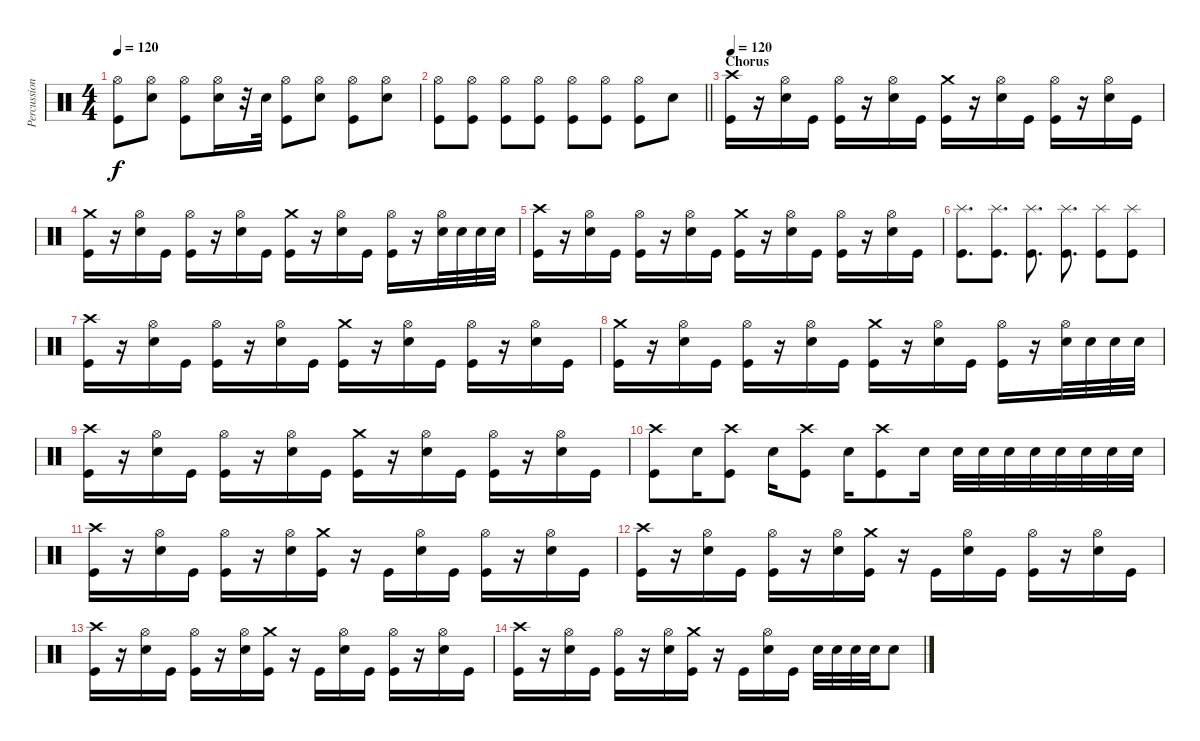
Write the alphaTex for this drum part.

\track ("Percussion" "Percussion") {instrument percussion}
\staff {score}
\articulation defaults
\ts (4 4)
\tempo 120
\clef neutral
\ks c
("Hi-Hat (open)" "Kick (hit)").8{dy f} ("Hi-Hat (open)" "Electric Snare (hit)").8 ("Hi-Hat (open)" "Kick (hit)").8 ("Hi-Hat (open)" "Electric Snare (hit)").16 r.32 "Electric Snare (hit)".32 ("Hi-Hat (open)" "Kick (hit)").8 ("Hi-Hat (open)" "Electric Snare (hit)").8 ("Hi-Hat (open)" "Kick (hit)").8 ("Hi-Hat (open)" "Electric Snare (hit)").8 |
\barLineRight lightlight
("Hi-Hat (open)" "Kick (hit)").8 ("Hi-Hat (open)" "Kick (hit)").8 ("Hi-Hat (open)" "Kick (hit)").8 ("Hi-Hat (open)" "Kick (hit)").8 ("Hi-Hat (open)" "Kick (hit)").8 ("Hi-Hat (open)" "Kick (hit)").8 ("Hi-Hat (open)" "Kick (hit)").8 "Electric Snare (hit)".8 |
\section ("" "Chorus")
\tempo 120
("Crash high (hit)" "Kick (hit)").16 r.16 ("Hi-Hat (open)" "Electric Snare (hit)").16 "Kick (hit)".16 ("Hi-Hat (open)" "Kick (hit)").16 r.16 ("Hi-Hat (open)" "Electric Snare (hit)").16 "Kick (hit)".16 ("Crash medium (hit)" "Kick (hit)").16 r.16 ("Hi-Hat (open)" "Electric Snare (hit)").16 "Kick (hit)".16 ("Hi-Hat (open)" "Kick (hit)").16 r.16 ("Hi-Hat (open)" "Electric Snare (hit)").16 "Kick (hit)".16 |
("Crash medium (hit)" "Kick (hit)").16 r.16 ("Hi-Hat (open)" "Electric Snare (hit)").16 "Kick (hit)".16 ("Hi-Hat (open)" "Kick (hit)").16 r.16 ("Hi-Hat (open)" "Electric Snare (hit)").16 "Kick (hit)".16 ("Crash medium (hit)" "Kick (hit)").16 r.16 ("Hi-Hat (open)" "Electric Snare (hit)").16 "Kick (hit)".16 ("Hi-Hat (open)" "Kick (hit)").16 r.16 ("Hi-Hat (open)" "Electric Snare (hit)").32 "Electric Snare (hit)".32 "Electric Snare (hit)".32 "Electric Snare (hit)".32 |
("Crash high (hit)" "Kick (hit)").16 r.16 ("Hi-Hat (open)" "Electric Snare (hit)").16 "Kick (hit)".16 ("Hi-Hat (open)" "Kick (hit)").16 r.16 ("Hi-Hat (open)" "Electric Snare (hit)").16 "Kick (hit)".16 ("Crash medium (hit)" "Kick (hit)").16 r.16 ("Hi-Hat (open)" "Electric Snare (hit)").16 "Kick (hit)".16 ("Hi-Hat (open)" "Kick (hit)").16 r.16 ("Hi-Hat (open)" "Electric Snare (hit)").16 "Kick (hit)".16 |
("Splash (hit)" "Kick (hit)").8{d} ("Splash (hit)" "Kick (hit)").8{d} ("Splash (hit)" "Kick (hit)").8{d} ("Splash (hit)" "Kick (hit)").8{d} ("Splash (hit)" "Kick (hit)").8 ("Splash (hit)" "Kick (hit)").8 |
("Crash high (hit)" "Kick (hit)").16 r.16 ("Hi-Hat (open)" "Electric Snare (hit)").16 "Kick (hit)".16 ("Hi-Hat (open)" "Kick (hit)").16 r.16 ("Hi-Hat (open)" "Electric Snare (hit)").16 "Kick (hit)".16 ("Crash medium (hit)" "Kick (hit)").16 r.16 ("Hi-Hat (open)" "Electric Snare (hit)").16 "Kick (hit)".16 ("Hi-Hat (open)" "Kick (hit)").16 r.16 ("Hi-Hat (open)" "Electric Snare (hit)").16 "Kick (hit)".16 |
("Crash medium (hit)" "Kick (hit)").16 r.16 ("Hi-Hat (open)" "Electric Snare (hit)").16 "Kick (hit)".16 ("Hi-Hat (open)" "Kick (hit)").16 r.16 ("Hi-Hat (open)" "Electric Snare (hit)").16 "Kick (hit)".16 ("Crash medium (hit)" "Kick (hit)").16 r.16 ("Hi-Hat (open)" "Electric Snare (hit)").16 "Kick (hit)".16 ("Hi-Hat (open)" "Kick (hit)").16 r.16 ("Hi-Hat (open)" "Electric Snare (hit)").32 "Electric Snare (hit)".32 "Electric Snare (hit)".32 "Electric Snare (hit)".32 |
("Crash high (hit)" "Kick (hit)").16 r.16 ("Hi-Hat (open)" "Electric Snare (hit)").16 "Kick (hit)".16 ("Hi-Hat (open)" "Kick (hit)").16 r.16 ("Hi-Hat (open)" "Electric Snare (hit)").16 "Kick (hit)".16 ("Crash medium (hit)" "Kick (hit)").16 r.16 ("Hi-Hat (open)" "Electric Snare (hit)").16 "Kick (hit)".16 ("Hi-Hat (open)" "Kick (hit)").16 r.16 ("Hi-Hat (open)" "Electric Snare (hit)").16 "Kick (hit)".16 |
("Crash high (hit)" "Kick (hit)").8 "Electric Snare (hit)".16 ("Crash high (hit)" "Kick (hit)").8 "Electric Snare (hit)".16 ("Crash high (hit)" "Kick (hit)").8 "Electric Snare (hit)".16 ("Crash high (hit)" "Kick (hit)").8 "Electric Snare (hit)".16 "Electric Snare (hit)".32 "Electric Snare (hit)".32 "Electric Snare (hit)".32 "Electric Snare (hit)".32 "Electric Snare (hit)".32 "Electric Snare (hit)".32 "Electric Snare (hit)".32 "Electric Snare (hit)".32 |
("Crash high (hit)" "Kick (hit)").16 r.16 ("Hi-Hat (open)" "Electric Snare (hit)").16 "Kick (hit)".16 ("Hi-Hat (open)" "Kick (hit)").16 r.16 ("Hi-Hat (open)" "Electric Snare (hit)").16 ("Crash medium (hit)" "Kick (hit)").16 r.16 "Kick (hit)".16 ("Hi-Hat (open)" "Electric Snare (hit)").16 "Kick (hit)".16 ("Hi-Hat (open)" "Kick (hit)").16 r.16 ("Hi-Hat (open)" "Electric Snare (hit)").16 "Kick (hit)".16 |
("Crash high (hit)" "Kick (hit)").16 r.16 ("Hi-Hat (open)" "Electric Snare (hit)").16 "Kick (hit)".16 ("Hi-Hat (open)" "Kick (hit)").16 r.16 ("Hi-Hat (open)" "Electric Snare (hit)").16 ("Crash medium (hit)" "Kick (hit)").16 r.16 "Kick (hit)".16 ("Hi-Hat (open)" "Electric Snare (hit)").16 "Kick (hit)".16 ("Hi-Hat (open)" "Kick (hit)").16 r.16 ("Hi-Hat (open)" "Electric Snare (hit)").16 "Kick (hit)".16 |
("Crash high (hit)" "Kick (hit)").16 r.16 ("Hi-Hat (open)" "Electric Snare (hit)").16 "Kick (hit)".16 ("Hi-Hat (open)" "Kick (hit)").16 r.16 ("Hi-Hat (open)" "Electric Snare (hit)").16 ("Crash medium (hit)" "Kick (hit)").16 r.16 "Kick (hit)".16 ("Hi-Hat (open)" "Electric Snare (hit)").16 "Kick (hit)".16 ("Hi-Hat (open)" "Kick (hit)").16 r.16 ("Hi-Hat (open)" "Electric Snare (hit)").16 "Kick (hit)".16 |
("Crash high (hit)" "Kick (hit)").16 r.16 ("Hi-Hat (open)" "Electric Snare (hit)").16 "Kick (hit)".16 ("Hi-Hat (open)" "Kick (hit)").16 r.16 ("Hi-Hat (open)" "Electric Snare (hit)").16 ("Crash medium (hit)" "Kick (hit)").16 r.16 "Kick (hit)".16 ("Hi-Hat (open)" "Electric Snare (hit)").16 "Kick (hit)".16 "Electric Snare (hit)".32 "Electric Snare (hit)".32 "Electric Snare (hit)".32 "Electric Snare (hit)".32 "Electric Snare (hit)".8
